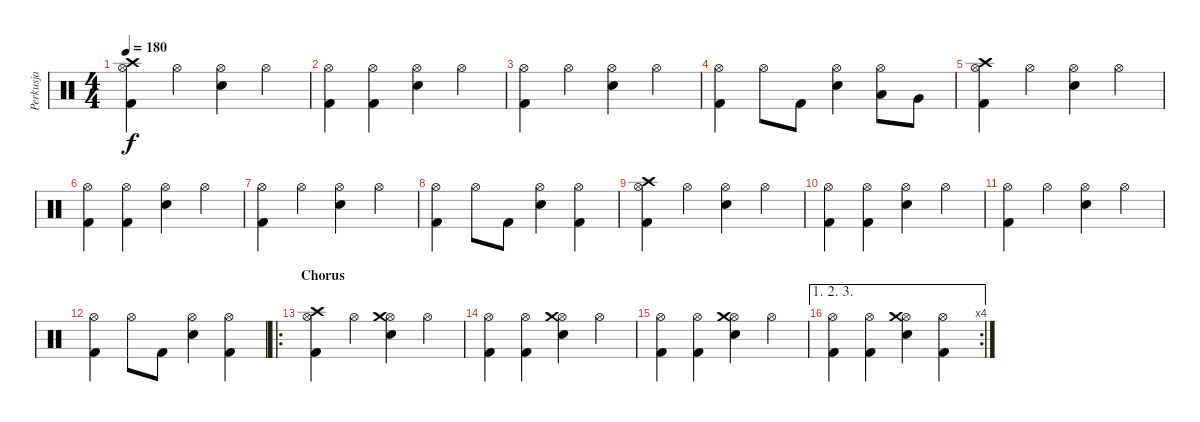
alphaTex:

\track ("Perkusja" "Perkusja") {instrument percussion}
\staff {score}
\articulation defaults
\ts (4 4)
\tempo 180
\clef neutral
\ks c
("Hi-Hat (open)" "Kick (hit) 2" "Crash high (hit)").4{dy f} "Hi-Hat (open)".4 ("Hi-Hat (open)" "Snare (hit) 2").4 "Hi-Hat (open)".4 |
("Hi-Hat (open)" "Kick (hit) 2").4 ("Hi-Hat (open)" "Kick (hit) 2").4 ("Hi-Hat (open)" "Snare (hit) 2").4 "Hi-Hat (open)".4 |
("Hi-Hat (open)" "Kick (hit) 2").4 "Hi-Hat (open)".4 ("Hi-Hat (open)" "Snare (hit) 2").4 "Hi-Hat (open)".4 |
("Hi-Hat (open)" "Kick (hit) 2").4 "Hi-Hat (open)".8 "Kick (hit) 2".8 ("Hi-Hat (open)" "Snare (hit) 2").4 ("Hi-Hat (open)" "Low Tom (hit)").8 "Very Low Tom (hit)".8 |
("Hi-Hat (open)" "Kick (hit) 2" "Crash high (hit)").4 "Hi-Hat (open)".4 ("Hi-Hat (open)" "Snare (hit) 2").4 "Hi-Hat (open)".4 |
("Hi-Hat (open)" "Kick (hit) 2").4 ("Hi-Hat (open)" "Kick (hit) 2").4 ("Hi-Hat (open)" "Snare (hit) 2").4 "Hi-Hat (open)".4 |
("Hi-Hat (open)" "Kick (hit) 2").4 "Hi-Hat (open)".4 ("Hi-Hat (open)" "Snare (hit) 2").4 "Hi-Hat (open)".4 |
("Hi-Hat (open)" "Kick (hit) 2").4 "Hi-Hat (open)".8 "Kick (hit) 2".8 ("Hi-Hat (open)" "Snare (hit) 2").4 ("Hi-Hat (open)" "Kick (hit) 2").4 |
("Hi-Hat (open)" "Kick (hit) 2" "Crash high (hit)").4 "Hi-Hat (open)".4 ("Hi-Hat (open)" "Snare (hit) 2").4 "Hi-Hat (open)".4 |
("Hi-Hat (open)" "Kick (hit) 2").4 ("Hi-Hat (open)" "Kick (hit) 2").4 ("Hi-Hat (open)" "Snare (hit) 2").4 "Hi-Hat (open)".4 |
("Hi-Hat (open)" "Kick (hit) 2").4 "Hi-Hat (open)".4 ("Hi-Hat (open)" "Snare (hit) 2").4 "Hi-Hat (open)".4 |
("Hi-Hat (open)" "Kick (hit) 2").4 "Hi-Hat (open)".8 "Kick (hit) 2".8 ("Hi-Hat (open)" "Snare (hit) 2").4 ("Hi-Hat (open)" "Kick (hit) 2").4 |
\ro
\section ("" "Chorus")
("Hi-Hat (open)" "Kick (hit) 2" "Crash high (hit)").4 "Hi-Hat (open)".4 ("Hi-Hat (open)" "Snare (hit) 2" "Crash medium (hit)").4 "Hi-Hat (open)".4 |
("Hi-Hat (open)" "Kick (hit) 2").4 ("Hi-Hat (open)" "Kick (hit) 2").4 ("Hi-Hat (open)" "Snare (hit) 2" "Crash medium (hit)").4 "Hi-Hat (open)".4 |
("Hi-Hat (open)" "Kick (hit) 2").4 ("Hi-Hat (open)" "Kick (hit) 2").4 ("Hi-Hat (open)" "Snare (hit) 2" "Crash medium (hit)").4 "Hi-Hat (open)".4 |
\ae (1 2 3)
\rc 4
("Hi-Hat (open)" "Kick (hit) 2").4 ("Hi-Hat (open)" "Kick (hit) 2").4 ("Hi-Hat (open)" "Snare (hit) 2" "Crash medium (hit)").4 ("Hi-Hat (open)" "Kick (hit) 2").4
